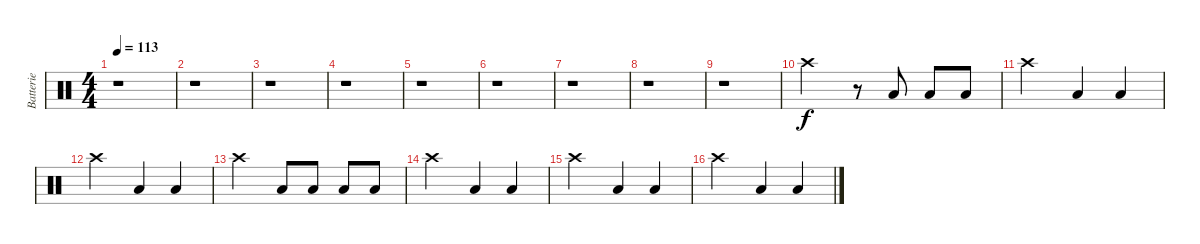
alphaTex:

\track ("Batterie" "Batterie") {instrument percussion}
\staff {score}
\articulation defaults
\ts (4 4)
\tempo 113
\clef neutral
\ks c
r.1{dy f} |
r.1 |
r.1 |
r.1 |
r.1 |
r.1 |
r.1 |
r.1 |
r.1 |
"Crash high (hit)".2 r.8 "Low Floor Tom (hit)".8 "Low Floor Tom (hit)".8 "Low Floor Tom (hit)".8 |
"Crash high (hit)".2 "Low Floor Tom (hit)".4 "Low Floor Tom (hit)".4 |
"Crash high (hit)".2 "Low Floor Tom (hit)".4 "Low Floor Tom (hit)".4 |
"Crash high (hit)".2 "Low Floor Tom (hit)".8 "Low Floor Tom (hit)".8 "Low Floor Tom (hit)".8 "Low Floor Tom (hit)".8 |
"Crash high (hit)".2 "Low Floor Tom (hit)".4 "Low Floor Tom (hit)".4 |
"Crash high (hit)".2 "Low Floor Tom (hit)".4 "Low Floor Tom (hit)".4 |
"Crash high (hit)".2 "Low Floor Tom (hit)".4 "Low Floor Tom (hit)".4
